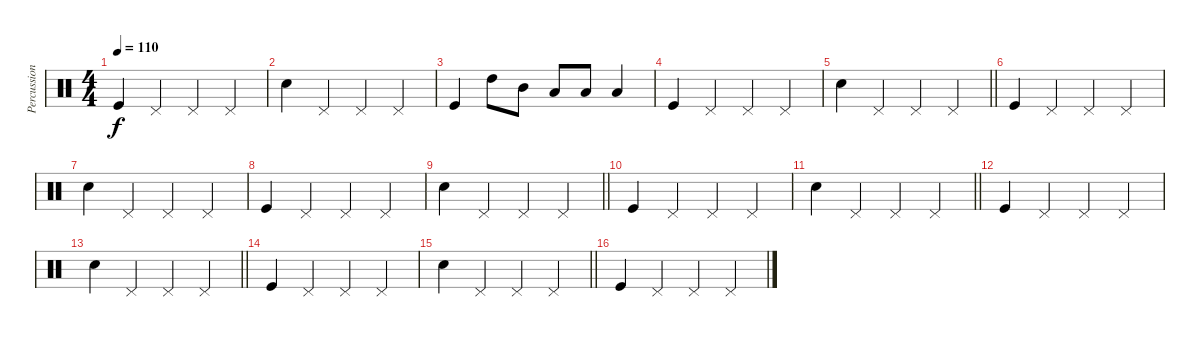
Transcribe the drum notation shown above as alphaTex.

\track ("Percussion" "Percussion") {instrument percussion}
\staff {score}
\articulation defaults
\ts (4 4)
\tempo 110
\clef neutral
\ks c "Kick (hit)".4{dy f} "Pedal Hi-Hat (hit)".4 "Pedal Hi-Hat (hit)".4 "Pedal Hi-Hat (hit)".4
|
"Electric Snare (hit)".4 "Pedal Hi-Hat (hit)".4 "Pedal Hi-Hat (hit)".4 "Pedal Hi-Hat (hit)".4 |
"Kick (hit)".4 "High Tom (hit)".8 "Mid Tom (hit)".8 "Low Tom (hit)".8 "Low Tom (hit)".8 "Low Tom (hit)".4 |
"Kick (hit)".4 "Pedal Hi-Hat (hit)".4 "Pedal Hi-Hat (hit)".4 "Pedal Hi-Hat (hit)".4 |
\barLineRight lightlight "Electric Snare (hit)".4 "Pedal Hi-Hat (hit)".4 "Pedal Hi-Hat (hit)".4 "Pedal Hi-Hat (hit)".4
|
"Kick (hit)".4 "Pedal Hi-Hat (hit)".4 "Pedal Hi-Hat (hit)".4 "Pedal Hi-Hat (hit)".4 |
"Electric Snare (hit)".4 "Pedal Hi-Hat (hit)".4 "Pedal Hi-Hat (hit)".4 "Pedal Hi-Hat (hit)".4 |
"Kick (hit)".4 "Pedal Hi-Hat (hit)".4 "Pedal Hi-Hat (hit)".4 "Pedal Hi-Hat (hit)".4 |
\barLineRight lightlight "Electric Snare (hit)".4 "Pedal Hi-Hat (hit)".4 "Pedal Hi-Hat (hit)".4 "Pedal Hi-Hat (hit)".4
|
"Kick (hit)".4 "Pedal Hi-Hat (hit)".4 "Pedal Hi-Hat (hit)".4 "Pedal Hi-Hat (hit)".4 |
\barLineRight lightlight "Electric Snare (hit)".4 "Pedal Hi-Hat (hit)".4 "Pedal Hi-Hat (hit)".4 "Pedal Hi-Hat (hit)".4
|
"Kick (hit)".4 "Pedal Hi-Hat (hit)".4 "Pedal Hi-Hat (hit)".4 "Pedal Hi-Hat (hit)".4 |
\barLineRight lightlight "Electric Snare (hit)".4 "Pedal Hi-Hat (hit)".4 "Pedal Hi-Hat (hit)".4 "Pedal Hi-Hat (hit)".4
|
"Kick (hit)".4 "Pedal Hi-Hat (hit)".4 "Pedal Hi-Hat (hit)".4 "Pedal Hi-Hat (hit)".4 |
\barLineRight lightlight "Electric Snare (hit)".4 "Pedal Hi-Hat (hit)".4 "Pedal Hi-Hat (hit)".4 "Pedal Hi-Hat (hit)".4
|
"Kick (hit)".4 "Pedal Hi-Hat (hit)".4 "Pedal Hi-Hat (hit)".4 "Pedal Hi-Hat (hit)".4
